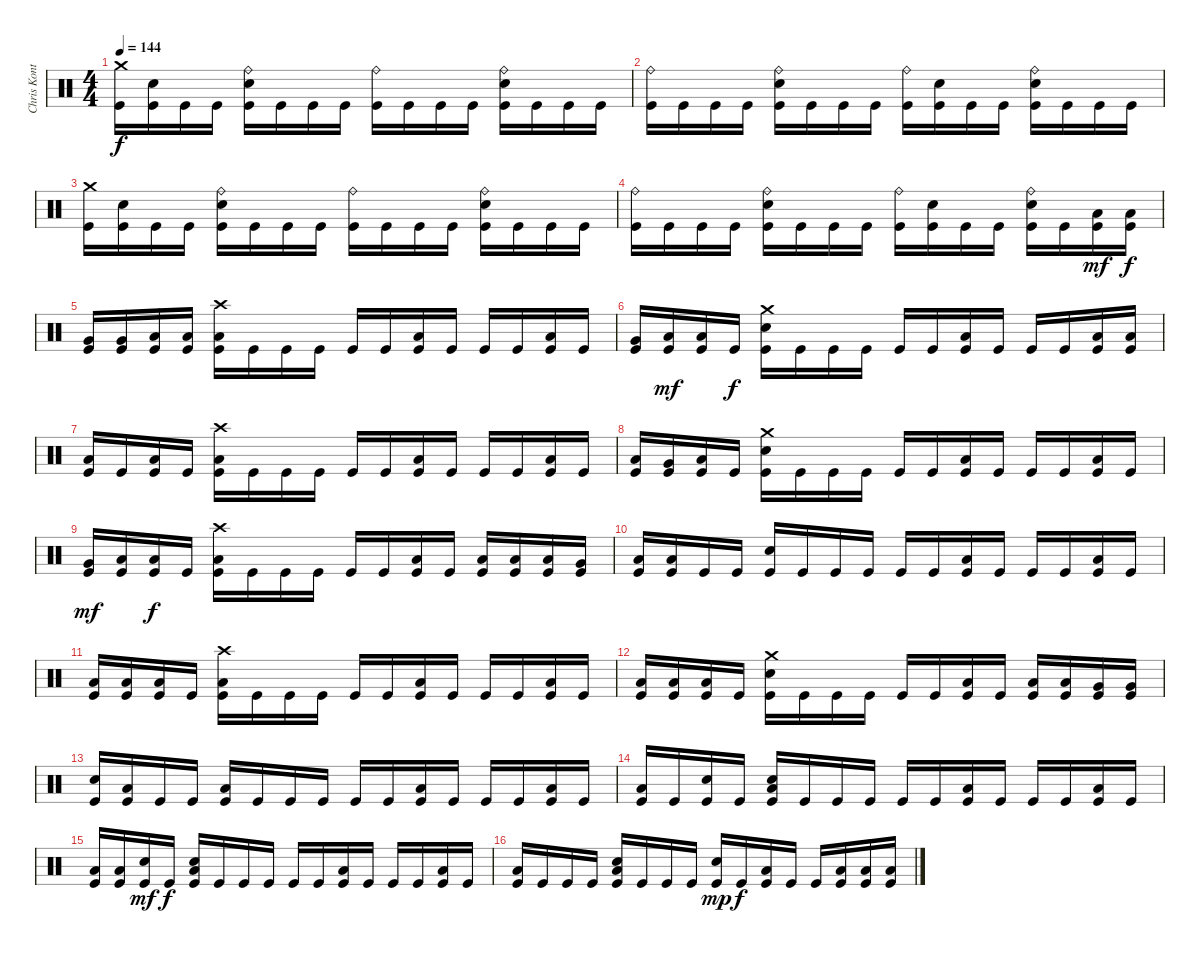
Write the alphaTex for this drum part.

\track ("Chris Kontos" "Chris Kont") {instrument percussion}
\staff {score}
\articulation defaults
\ts (4 4)
\tempo 144
\clef neutral
\ks c
("Crash medium (hit)" "Kick (hit)").16{dy f} ("Electric Snare (hit)" "Kick (hit)").16 "Kick (hit)".16 "Kick (hit)".16 ("Ride (bell)" "Electric Snare (hit)" "Kick (hit)").16 "Kick (hit)".16 "Kick (hit)".16 "Kick (hit)".16 ("Ride (bell)" "Kick (hit)").16 "Kick (hit)".16 "Kick (hit)".16 "Kick (hit)".16 ("Ride (bell)" "Electric Snare (hit)" "Kick (hit)").16 "Kick (hit)".16 "Kick (hit)".16 "Kick (hit)".16 |
("Ride (bell)" "Kick (hit)").16 "Kick (hit)".16 "Kick (hit)".16 "Kick (hit)".16 ("Ride (bell)" "Electric Snare (hit)" "Kick (hit)").16 "Kick (hit)".16 "Kick (hit)".16 "Kick (hit)".16 ("Ride (bell)" "Kick (hit)").16 ("Electric Snare (hit)" "Kick (hit)").16 "Kick (hit)".16 "Kick (hit)".16 ("Ride (bell)" "Electric Snare (hit)" "Kick (hit)").16 "Kick (hit)".16 "Kick (hit)".16 "Kick (hit)".16 |
("Crash medium (hit)" "Kick (hit)").16 ("Electric Snare (hit)" "Kick (hit)").16 "Kick (hit)".16 "Kick (hit)".16 ("Ride (bell)" "Electric Snare (hit)" "Kick (hit)").16 "Kick (hit)".16 "Kick (hit)".16 "Kick (hit)".16 ("Ride (bell)" "Kick (hit)").16 "Kick (hit)".16 "Kick (hit)".16 "Kick (hit)".16 ("Ride (bell)" "Electric Snare (hit)" "Kick (hit)").16 "Kick (hit)".16 "Kick (hit)".16 "Kick (hit)".16 |
("Ride (bell)" "Kick (hit)").16 "Kick (hit)".16 "Kick (hit)".16 "Kick (hit)".16 ("Ride (bell)" "Electric Snare (hit)" "Kick (hit)").16 "Kick (hit)".16 "Kick (hit)".16 "Kick (hit)".16 ("Ride (bell)" "Kick (hit)").16 ("Electric Snare (hit)" "Kick (hit)").16 "Kick (hit)".16 "Kick (hit)".16 ("Ride (bell)" "Electric Snare (hit)" "Kick (hit)").16 "Kick (hit)".16 ("Low Tom (hit)" "Kick (hit)").16{dy mf} ("Low Tom (hit)" "Kick (hit)").16{dy f} |
("Very Low Tom (hit)" "Kick (hit)").16 ("Very Low Tom (hit)" "Kick (hit)").16 ("Low Floor Tom (hit)" "Kick (hit)").16 ("Low Floor Tom (hit)" "Kick (hit)").16 ("Crash high (hit)" "Low Floor Tom (hit)" "Kick (hit)").16 "Kick (hit)".16 "Kick (hit)".16 "Kick (hit)".16 "Kick (hit)".16 "Kick (hit)".16 ("Low Floor Tom (hit)" "Kick (hit)").16 "Kick (hit)".16 "Kick (hit)".16 "Kick (hit)".16 ("Low Floor Tom (hit)" "Kick (hit)").16 "Kick (hit)".16 |
("Very Low Tom (hit)" "Kick (hit)").16 ("Low Floor Tom (hit)" "Kick (hit)").16{dy mf} ("Low Floor Tom (hit)" "Kick (hit)").16 "Kick (hit)".16{dy f} ("Crash medium (hit)" "Electric Snare (hit)" "Kick (hit)").16 "Kick (hit)".16 "Kick (hit)".16 "Kick (hit)".16 "Kick (hit)".16 "Kick (hit)".16 ("Low Floor Tom (hit)" "Kick (hit)").16 "Kick (hit)".16 "Kick (hit)".16 "Kick (hit)".16 ("Low Floor Tom (hit)" "Kick (hit)").16 ("Low Floor Tom (hit)" "Kick (hit)").16 |
("Low Floor Tom (hit)" "Kick (hit)").16 "Kick (hit)".16 ("Low Floor Tom (hit)" "Kick (hit)").16 "Kick (hit)".16 ("Crash high (hit)" "Low Floor Tom (hit)" "Kick (hit)").16 "Kick (hit)".16 "Kick (hit)".16 "Kick (hit)".16 "Kick (hit)".16 "Kick (hit)".16 ("Low Floor Tom (hit)" "Kick (hit)").16 "Kick (hit)".16 "Kick (hit)".16 "Kick (hit)".16 ("Low Floor Tom (hit)" "Kick (hit)").16 "Kick (hit)".16 |
("Low Tom (hit)" "Kick (hit)").16 ("Very Low Tom (hit)" "Kick (hit)").16 ("Low Floor Tom (hit)" "Kick (hit)").16 "Kick (hit)".16 ("Crash medium (hit)" "Electric Snare (hit)" "Kick (hit)").16 "Kick (hit)".16 "Kick (hit)".16 "Kick (hit)".16 "Kick (hit)".16 "Kick (hit)".16 ("Low Floor Tom (hit)" "Kick (hit)").16 "Kick (hit)".16 "Kick (hit)".16 "Kick (hit)".16 ("Low Floor Tom (hit)" "Kick (hit)").16 "Kick (hit)".16 |
("Very Low Tom (hit)" "Kick (hit)").16{dy mf} ("Low Floor Tom (hit)" "Kick (hit)").16 ("Low Floor Tom (hit)" "Kick (hit)").16{dy f} "Kick (hit)".16 ("Crash high (hit)" "Low Floor Tom (hit)" "Kick (hit)").16 "Kick (hit)".16 "Kick (hit)".16 "Kick (hit)".16 "Kick (hit)".16 "Kick (hit)".16 ("Low Floor Tom (hit)" "Kick (hit)").16 "Kick (hit)".16 ("Low Floor Tom (hit)" "Kick (hit)").16 ("Low Floor Tom (hit)" "Kick (hit)").16 ("Low Floor Tom (hit)" "Kick (hit)").16 ("Very Low Tom (hit)" "Kick (hit)").16 |
("Low Floor Tom (hit)" "Kick (hit)").16 ("Low Floor Tom (hit)" "Kick (hit)").16 "Kick (hit)".16 "Kick (hit)".16 ("Electric Snare (hit)" "Kick (hit)").16 "Kick (hit)".16 "Kick (hit)".16 "Kick (hit)".16 "Kick (hit)".16 "Kick (hit)".16 ("Low Floor Tom (hit)" "Kick (hit)").16 "Kick (hit)".16 "Kick (hit)".16 "Kick (hit)".16 ("Low Floor Tom (hit)" "Kick (hit)").16 "Kick (hit)".16 |
("Low Floor Tom (hit)" "Kick (hit)").16 ("Low Floor Tom (hit)" "Kick (hit)").16 ("Low Floor Tom (hit)" "Kick (hit)").16 "Kick (hit)".16 ("Crash high (hit)" "Low Floor Tom (hit)" "Kick (hit)").16 "Kick (hit)".16 "Kick (hit)".16 "Kick (hit)".16 "Kick (hit)".16 "Kick (hit)".16 ("Low Floor Tom (hit)" "Kick (hit)").16 "Kick (hit)".16 "Kick (hit)".16 "Kick (hit)".16 ("Low Floor Tom (hit)" "Kick (hit)").16 "Kick (hit)".16 |
("Low Floor Tom (hit)" "Kick (hit)").16 ("Low Floor Tom (hit)" "Kick (hit)").16 ("Low Floor Tom (hit)" "Kick (hit)").16 "Kick (hit)".16 ("Crash medium (hit)" "Electric Snare (hit)" "Kick (hit)").16 "Kick (hit)".16 "Kick (hit)".16 "Kick (hit)".16 "Kick (hit)".16 "Kick (hit)".16 ("Low Floor Tom (hit)" "Kick (hit)").16 "Kick (hit)".16 ("Low Tom (hit)" "Kick (hit)").16 ("Low Tom (hit)" "Kick (hit)").16 ("Very Low Tom (hit)" "Kick (hit)").16 ("Very Low Tom (hit)" "Kick (hit)").16 |
("Electric Snare (hit)" "Kick (hit)").16 ("Low Floor Tom (hit)" "Kick (hit)").16 "Kick (hit)".16 "Kick (hit)".16 ("Low Floor Tom (hit)" "Kick (hit)").16 "Kick (hit)".16 "Kick (hit)".16 "Kick (hit)".16 "Kick (hit)".16 "Kick (hit)".16 ("Low Floor Tom (hit)" "Kick (hit)").16 "Kick (hit)".16 "Kick (hit)".16 "Kick (hit)".16 ("Low Floor Tom (hit)" "Kick (hit)").16 "Kick (hit)".16 |
("Low Floor Tom (hit)" "Kick (hit)").16 "Kick (hit)".16 ("Electric Snare (hit)" "Kick (hit)").16 "Kick (hit)".16 ("Electric Snare (hit)" "Low Floor Tom (hit)" "Kick (hit)").16 "Kick (hit)".16 "Kick (hit)".16 "Kick (hit)".16 "Kick (hit)".16 "Kick (hit)".16 ("Low Floor Tom (hit)" "Kick (hit)").16 "Kick (hit)".16 "Kick (hit)".16 "Kick (hit)".16 ("Low Floor Tom (hit)" "Kick (hit)").16 "Kick (hit)".16 |
("Low Floor Tom (hit)" "Kick (hit)").16 ("Low Floor Tom (hit)" "Kick (hit)").16 ("Electric Snare (hit)" "Kick (hit)").16{dy mf} "Kick (hit)".16{dy f} ("Electric Snare (hit)" "Low Floor Tom (hit)" "Kick (hit)").16 "Kick (hit)".16 "Kick (hit)".16 "Kick (hit)".16 "Kick (hit)".16 "Kick (hit)".16 ("Low Floor Tom (hit)" "Kick (hit)").16 "Kick (hit)".16 "Kick (hit)".16 "Kick (hit)".16 ("Low Floor Tom (hit)" "Kick (hit)").16 "Kick (hit)".16 |
("Low Floor Tom (hit)" "Kick (hit)").16 "Kick (hit)".16 "Kick (hit)".16 "Kick (hit)".16 ("Electric Snare (hit)" "Low Floor Tom (hit)" "Kick (hit)").16 "Kick (hit)".16 "Kick (hit)".16 "Kick (hit)".16 ("Electric Snare (hit)" "Kick (hit)").16{dy mp} "Kick (hit)".16{dy f} ("Low Floor Tom (hit)" "Kick (hit)").16 "Kick (hit)".16 "Kick (hit)".16 ("Low Floor Tom (hit)" "Kick (hit)").16 ("Low Floor Tom (hit)" "Kick (hit)").16 ("Low Floor Tom (hit)" "Kick (hit)").16
